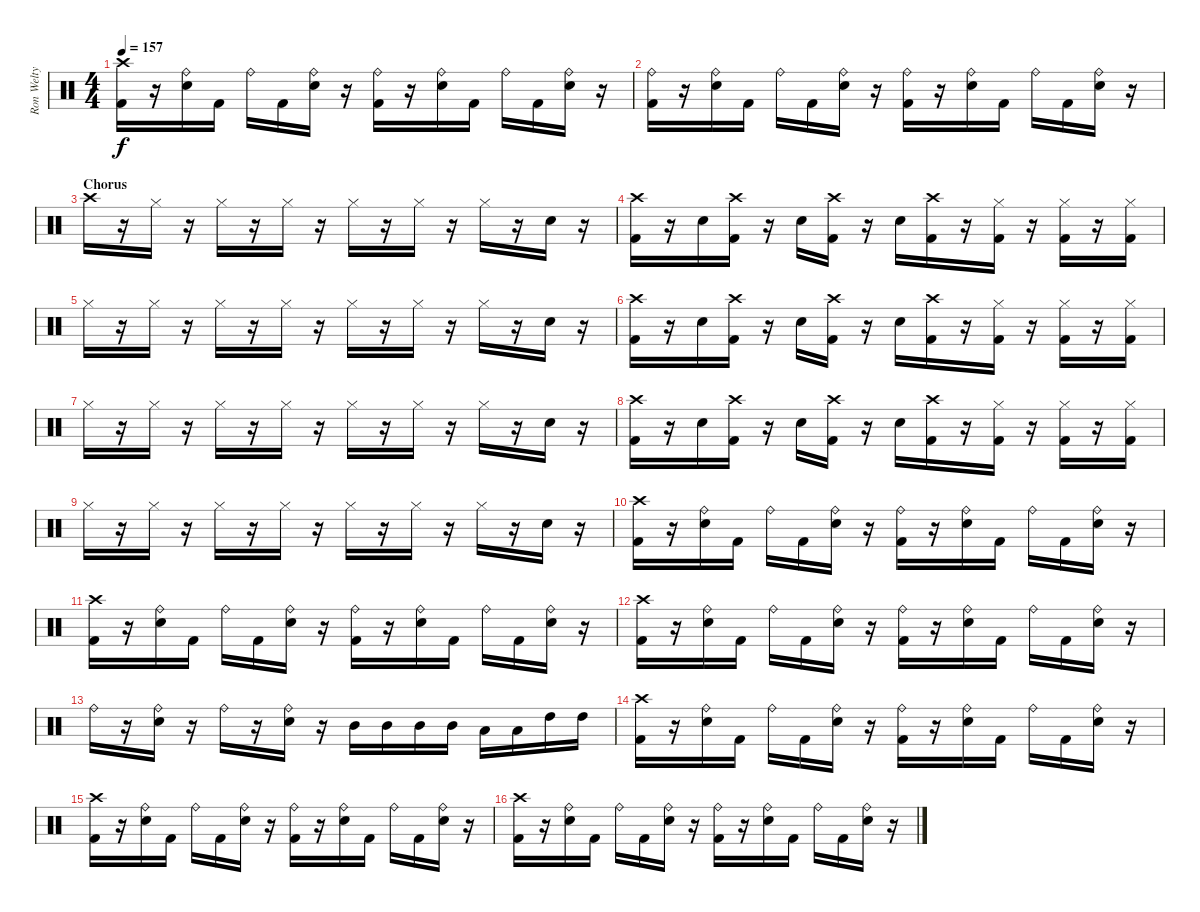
\track ("Ron Welty - Drums" "Ron Welty ") {instrument percussion}
\staff {score}
\articulation defaults
\ts (4 4)
\tempo 157
\clef neutral
\ks c
("Crash high (hit)" "Kick (hit) 2").16{dy f} r.16 ("Ride (bell)" "Snare (hit) 2").16 "Kick (hit) 2".16 "Ride (bell)".16 "Kick (hit) 2".16 ("Ride (bell)" "Snare (hit) 2").16 r.16 ("Ride (bell)" "Kick (hit) 2").16 r.16 ("Ride (bell)" "Snare (hit) 2").16 "Kick (hit) 2".16 "Ride (bell)".16 "Kick (hit) 2".16 ("Ride (bell)" "Snare (hit) 2").16 r.16 |
("Ride (bell)" "Kick (hit) 2").16 r.16 ("Ride (bell)" "Snare (hit) 2").16 "Kick (hit) 2".16 "Ride (bell)".16 "Kick (hit) 2".16 ("Ride (bell)" "Snare (hit) 2").16 r.16 ("Ride (bell)" "Kick (hit) 2").16 r.16 ("Ride (bell)" "Snare (hit) 2").16 "Kick (hit) 2".16 "Ride (bell)".16 "Kick (hit) 2".16 ("Ride (bell)" "Snare (hit) 2").16 r.16 |
\section ("" "Chorus")
"Crash high (hit)".16 r.16 "Hi-Hat (closed)".16 r.16 "Hi-Hat (closed)".16 r.16 "Hi-Hat (closed)".16 r.16 "Hi-Hat (closed)".16 r.16 "Hi-Hat (closed)".16 r.16 "Hi-Hat (closed)".16 r.16 "Snare (hit) 2".16 r.16 |
("Crash high (hit)" "Kick (hit) 2").16 r.16 "Snare (hit) 2".16 ("Crash high (hit)" "Kick (hit) 2").16 r.16 "Snare (hit) 2".16 ("Crash high (hit)" "Kick (hit) 2").16 r.16 "Snare (hit) 2".16 ("Crash high (hit)" "Kick (hit) 2").16 r.16 ("Hi-Hat (closed)" "Kick (hit) 2").16 r.16 ("Hi-Hat (closed)" "Kick (hit) 2").16 r.16 ("Hi-Hat (closed)" "Kick (hit) 2").16 |
"Hi-Hat (closed)".16 r.16 "Hi-Hat (closed)".16 r.16 "Hi-Hat (closed)".16 r.16 "Hi-Hat (closed)".16 r.16 "Hi-Hat (closed)".16 r.16 "Hi-Hat (closed)".16 r.16 "Hi-Hat (closed)".16 r.16 "Snare (hit) 2".16 r.16 |
("Crash high (hit)" "Kick (hit) 2").16 r.16 "Snare (hit) 2".16 ("Crash high (hit)" "Kick (hit) 2").16 r.16 "Snare (hit) 2".16 ("Crash high (hit)" "Kick (hit) 2").16 r.16 "Snare (hit) 2".16 ("Crash high (hit)" "Kick (hit) 2").16 r.16 ("Hi-Hat (closed)" "Kick (hit) 2").16 r.16 ("Hi-Hat (closed)" "Kick (hit) 2").16 r.16 ("Hi-Hat (closed)" "Kick (hit) 2").16 |
"Hi-Hat (closed)".16 r.16 "Hi-Hat (closed)".16 r.16 "Hi-Hat (closed)".16 r.16 "Hi-Hat (closed)".16 r.16 "Hi-Hat (closed)".16 r.16 "Hi-Hat (closed)".16 r.16 "Hi-Hat (closed)".16 r.16 "Snare (hit) 2".16 r.16 |
("Crash high (hit)" "Kick (hit) 2").16 r.16 "Snare (hit) 2".16 ("Crash high (hit)" "Kick (hit) 2").16 r.16 "Snare (hit) 2".16 ("Crash high (hit)" "Kick (hit) 2").16 r.16 "Snare (hit) 2".16 ("Crash high (hit)" "Kick (hit) 2").16 r.16 ("Hi-Hat (closed)" "Kick (hit) 2").16 r.16 ("Hi-Hat (closed)" "Kick (hit) 2").16 r.16 ("Hi-Hat (closed)" "Kick (hit) 2").16 |
"Hi-Hat (closed)".16 r.16 "Hi-Hat (closed)".16 r.16 "Hi-Hat (closed)".16 r.16 "Hi-Hat (closed)".16 r.16 "Hi-Hat (closed)".16 r.16 "Hi-Hat (closed)".16 r.16 "Hi-Hat (closed)".16 r.16 "Snare (hit) 2".16 r.16 |
("Crash high (hit)" "Kick (hit) 2").16 r.16 ("Ride (bell)" "Snare (hit) 2").16 "Kick (hit) 2".16 "Ride (bell)".16 "Kick (hit) 2".16 ("Ride (bell)" "Snare (hit) 2").16 r.16 ("Ride (bell)" "Kick (hit) 2").16 r.16 ("Ride (bell)" "Snare (hit) 2").16 "Kick (hit) 2".16 "Ride (bell)".16 "Kick (hit) 2".16 ("Ride (bell)" "Snare (hit) 2").16 r.16 |
("Crash high (hit)" "Kick (hit) 2").16 r.16 ("Ride (bell)" "Snare (hit) 2").16 "Kick (hit) 2".16 "Ride (bell)".16 "Kick (hit) 2".16 ("Ride (bell)" "Snare (hit) 2").16 r.16 ("Ride (bell)" "Kick (hit) 2").16 r.16 ("Ride (bell)" "Snare (hit) 2").16 "Kick (hit) 2".16 "Ride (bell)".16 "Kick (hit) 2".16 ("Ride (bell)" "Snare (hit) 2").16 r.16 |
("Crash high (hit)" "Kick (hit) 2").16 r.16 ("Ride (bell)" "Snare (hit) 2").16 "Kick (hit) 2".16 "Ride (bell)".16 "Kick (hit) 2".16 ("Ride (bell)" "Snare (hit) 2").16 r.16 ("Ride (bell)" "Kick (hit) 2").16 r.16 ("Ride (bell)" "Snare (hit) 2").16 "Kick (hit) 2".16 "Ride (bell)".16 "Kick (hit) 2".16 ("Ride (bell)" "Snare (hit) 2").16 r.16 |
"Ride (bell)".16 r.16 ("Ride (bell)" "Snare (hit) 2").16 r.16 "Ride (bell)".16 r.16 ("Ride (bell)" "Snare (hit) 2").16 r.16 "Mid Tom (hit)".16 "Mid Tom (hit)".16 "Mid Tom (hit)".16 "Mid Tom (hit)".16 "Low Tom (hit)".16 "Low Tom (hit)".16 "High Tom (hit)".16 "High Tom (hit)".16 |
("Crash high (hit)" "Kick (hit) 2").16 r.16 ("Ride (bell)" "Snare (hit) 2").16 "Kick (hit) 2".16 "Ride (bell)".16 "Kick (hit) 2".16 ("Ride (bell)" "Snare (hit) 2").16 r.16 ("Ride (bell)" "Kick (hit) 2").16 r.16 ("Ride (bell)" "Snare (hit) 2").16 "Kick (hit) 2".16 "Ride (bell)".16 "Kick (hit) 2".16 ("Ride (bell)" "Snare (hit) 2").16 r.16 |
("Crash high (hit)" "Kick (hit) 2").16 r.16 ("Ride (bell)" "Snare (hit) 2").16 "Kick (hit) 2".16 "Ride (bell)".16 "Kick (hit) 2".16 ("Ride (bell)" "Snare (hit) 2").16 r.16 ("Ride (bell)" "Kick (hit) 2").16 r.16 ("Ride (bell)" "Snare (hit) 2").16 "Kick (hit) 2".16 "Ride (bell)".16 "Kick (hit) 2".16 ("Ride (bell)" "Snare (hit) 2").16 r.16 |
("Crash high (hit)" "Kick (hit) 2").16 r.16 ("Ride (bell)" "Snare (hit) 2").16 "Kick (hit) 2".16 "Ride (bell)".16 "Kick (hit) 2".16 ("Ride (bell)" "Snare (hit) 2").16 r.16 ("Ride (bell)" "Kick (hit) 2").16 r.16 ("Ride (bell)" "Snare (hit) 2").16 "Kick (hit) 2".16 "Ride (bell)".16 "Kick (hit) 2".16 ("Ride (bell)" "Snare (hit) 2").16 r.16
